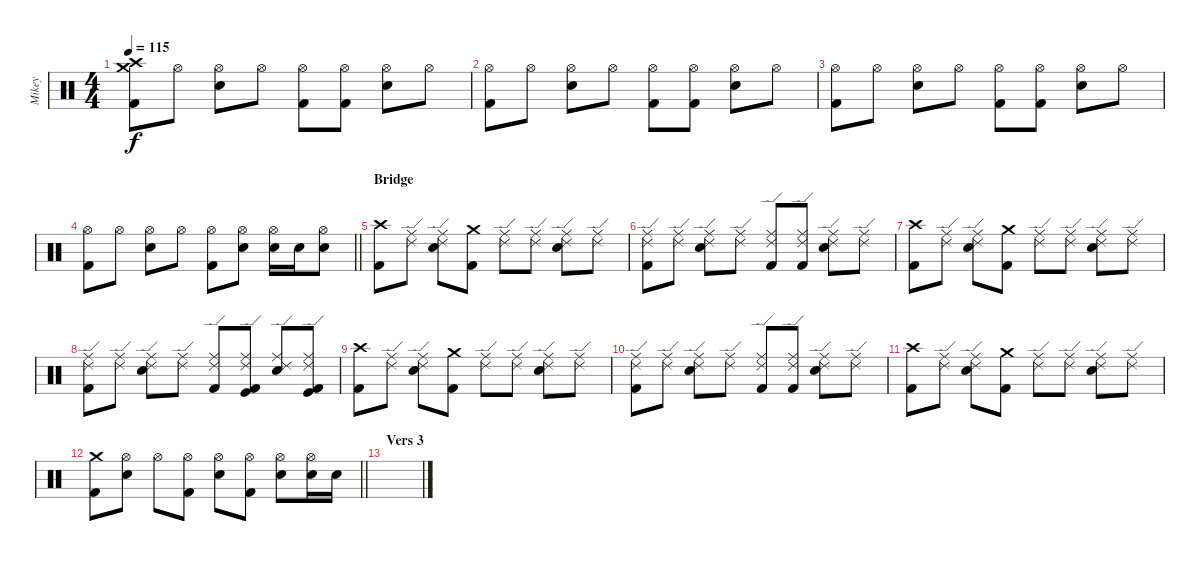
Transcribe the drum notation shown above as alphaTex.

\track ("Mikey" "Mikey") {instrument percussion}
\staff {score}
\articulation defaults
\ts (4 4)
\tempo 115
\clef neutral
\ks c
("Crash high (hit)" "Crash medium (hit)" "Kick (hit) 2").8{dy f} "Hi-Hat (open)".8 ("Hi-Hat (open)" "Snare (hit) 2").8 "Hi-Hat (open)".8 ("Hi-Hat (open)" "Kick (hit) 2").8 ("Hi-Hat (open)" "Kick (hit) 2").8 ("Hi-Hat (open)" "Snare (hit) 2").8 "Hi-Hat (open)".8 |
("Hi-Hat (open)" "Kick (hit) 2").8 "Hi-Hat (open)".8 ("Hi-Hat (open)" "Snare (hit) 2").8 "Hi-Hat (open)".8 ("Hi-Hat (open)" "Kick (hit) 2").8 ("Hi-Hat (open)" "Kick (hit) 2").8 ("Hi-Hat (open)" "Snare (hit) 2").8 "Hi-Hat (open)".8 |
("Hi-Hat (open)" "Kick (hit) 2").8 "Hi-Hat (open)".8 ("Hi-Hat (open)" "Snare (hit) 2").8 "Hi-Hat (open)".8 ("Hi-Hat (open)" "Kick (hit) 2").8 ("Hi-Hat (open)" "Kick (hit) 2").8 ("Hi-Hat (open)" "Snare (hit) 2").8 "Hi-Hat (open)".8 |
\barLineRight lightlight
("Hi-Hat (open)" "Kick (hit) 2").8 "Hi-Hat (open)".8 ("Hi-Hat (open)" "Snare (hit) 2").8 "Hi-Hat (open)".8 ("Hi-Hat (open)" "Kick (hit) 2").8 ("Hi-Hat (open)" "Snare (hit) 2").8 ("Hi-Hat (open)" "Snare (hit) 2").16 "Snare (hit) 2".16 ("Hi-Hat (open)" "Snare (hit) 2").8 |
\section ("" "Bridge")
("Crash high (hit)" "Kick (hit) 2").8 ("Ride (middle)" "Ride (edge) 2").8 ("Ride (middle)" "Ride (edge) 2" "Snare (hit) 2").8 ("Crash medium (hit)" "Kick (hit) 2").8 ("Ride (edge) 2" "Ride (middle)").8 ("Ride (edge) 2" "Ride (middle)").8 ("Ride (edge) 2" "Ride (middle)" "Snare (hit) 2").8 ("Ride (edge) 2" "Ride (middle)").8 |
("Ride (middle)" "Ride (edge) 2" "Kick (hit) 2").8 ("Ride (middle)" "Ride (edge) 2").8 ("Ride (middle)" "Ride (edge) 2" "Snare (hit) 2").8 ("Ride (middle)" "Ride (edge) 2").8 ("Ride (middle)" "Ride (edge) 2" "Kick (hit) 2").8 ("Ride (middle)" "Ride (edge) 2" "Kick (hit) 2").8 ("Ride (middle)" "Ride (edge) 2" "Snare (hit) 2").8 ("Ride (middle)" "Ride (edge) 2").8 |
("Crash high (hit)" "Kick (hit) 2").8 ("Ride (middle)" "Ride (edge) 2").8 ("Ride (middle)" "Ride (edge) 2" "Snare (hit) 2").8 ("Crash medium (hit)" "Kick (hit) 2").8 ("Ride (edge) 2" "Ride (middle)").8 ("Ride (edge) 2" "Ride (middle)").8 ("Ride (edge) 2" "Ride (middle)" "Snare (hit) 2").8 ("Ride (edge) 2" "Ride (middle)").8 |
("Ride (middle)" "Ride (edge) 2" "Kick (hit) 2").8 ("Ride (middle)" "Ride (edge) 2").8 ("Ride (middle)" "Ride (edge) 2" "Snare (hit) 2").8 ("Ride (middle)" "Ride (edge) 2").8 ("Ride (middle)" "Ride (edge) 2" "Kick (hit) 2").8 ("Ride (middle)" "Ride (edge) 2" "Kick (hit)" "Kick (hit) 2").8 ("Ride (middle)" "Ride (edge) 2" "Snare (hit) 2").8 ("Ride (middle)" "Ride (edge) 2" "Kick (hit)" "Kick (hit) 2").8 |
("Crash high (hit)" "Kick (hit) 2").8 ("Ride (middle)" "Ride (edge) 2").8 ("Ride (middle)" "Ride (edge) 2" "Snare (hit) 2").8 ("Crash medium (hit)" "Kick (hit) 2").8 ("Ride (edge) 2" "Ride (middle)").8 ("Ride (edge) 2" "Ride (middle)").8 ("Ride (edge) 2" "Ride (middle)" "Snare (hit) 2").8 ("Ride (edge) 2" "Ride (middle)").8 |
("Ride (middle)" "Ride (edge) 2" "Kick (hit) 2").8 ("Ride (middle)" "Ride (edge) 2").8 ("Ride (middle)" "Ride (edge) 2" "Snare (hit) 2").8 ("Ride (middle)" "Ride (edge) 2").8 ("Ride (middle)" "Ride (edge) 2" "Kick (hit) 2").8 ("Ride (middle)" "Ride (edge) 2" "Kick (hit) 2").8 ("Ride (middle)" "Ride (edge) 2" "Snare (hit) 2").8 ("Ride (middle)" "Ride (edge) 2").8 |
("Crash high (hit)" "Kick (hit) 2").8 ("Ride (middle)" "Ride (edge) 2").8 ("Ride (middle)" "Ride (edge) 2" "Snare (hit) 2").8 ("Crash medium (hit)" "Kick (hit) 2").8 ("Ride (edge) 2" "Ride (middle)").8 ("Ride (edge) 2" "Ride (middle)").8 ("Ride (edge) 2" "Ride (middle)" "Snare (hit) 2").8 ("Ride (edge) 2" "Ride (middle)").8 |
\barLineRight lightlight
("Crash medium (hit)" "Kick (hit) 2").8 ("Hi-Hat (open)" "Snare (hit) 2").8 "Hi-Hat (open)".8 ("Hi-Hat (open)" "Kick (hit) 2").8 ("Hi-Hat (open)" "Snare (hit) 2").8 ("Hi-Hat (open)" "Kick (hit) 2").8 ("Hi-Hat (open)" "Snare (hit) 2").8 ("Hi-Hat (open)" "Snare (hit) 2").16 "Snare (hit) 2".16 |
\section ("" "Vers 3")
